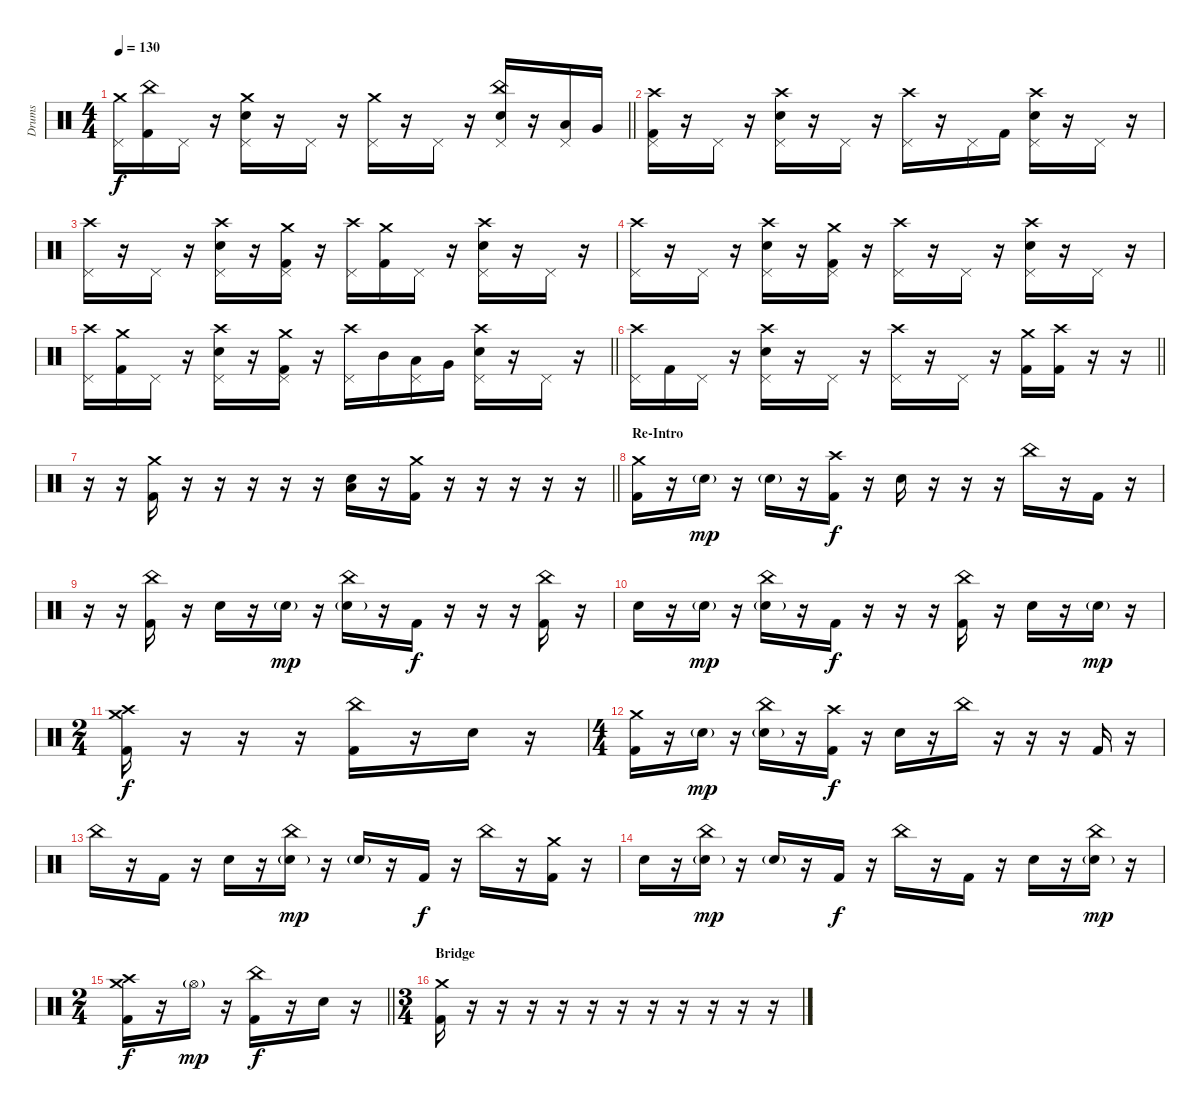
\track ("Drums" "Drums") {instrument percussion}
\staff {score}
\articulation defaults
\ts (4 4)
\tempo 130
\clef neutral
\barLineRight lightlight
\ks c
("Crash medium (hit)" "Pedal Hi-Hat (hit)").16{dy f} ("China (hit)" "Kick (hit) 2").16 "Pedal Hi-Hat (hit)".16 r.16 ("Crash medium (hit)" "Pedal Hi-Hat (hit)" "Electric Snare (hit)").16 r.16 "Pedal Hi-Hat (hit)".16 r.16 ("Crash medium (hit)" "Pedal Hi-Hat (hit)").16 r.16 "Pedal Hi-Hat (hit)".16 r.16 ("China (hit)" "Pedal Hi-Hat (hit)" "Electric Snare (hit)").16 r.16 ("Pedal Hi-Hat (hit)" "Low Tom (hit)").16 "Very Low Tom (hit)".16 |
("Crash high (hit)" "Pedal Hi-Hat (hit)" "Kick (hit) 2").16 r.16 "Pedal Hi-Hat (hit)".16 r.16 ("Crash high (hit)" "Pedal Hi-Hat (hit)" "Electric Snare (hit)").16 r.16 "Pedal Hi-Hat (hit)".16 r.16 ("Crash high (hit)" "Pedal Hi-Hat (hit)").16 r.16 "Pedal Hi-Hat (hit)".16 "Kick (hit) 2".16 ("Crash high (hit)" "Pedal Hi-Hat (hit)" "Electric Snare (hit)").16 r.16 "Pedal Hi-Hat (hit)".16 r.16 |
("Crash high (hit)" "Pedal Hi-Hat (hit)").16 r.16 "Pedal Hi-Hat (hit)".16 r.16 ("Crash high (hit)" "Pedal Hi-Hat (hit)" "Electric Snare (hit)").16 r.16 ("Crash medium (hit)" "Pedal Hi-Hat (hit)" "Kick (hit) 2").16 r.16 ("Crash high (hit)" "Pedal Hi-Hat (hit)").16 ("Crash medium (hit)" "Kick (hit) 2").16 "Pedal Hi-Hat (hit)".16 r.16 ("Crash high (hit)" "Pedal Hi-Hat (hit)" "Electric Snare (hit)").16 r.16 "Pedal Hi-Hat (hit)".16 r.16 |
("Crash high (hit)" "Pedal Hi-Hat (hit)").16 r.16 "Pedal Hi-Hat (hit)".16 r.16 ("Crash high (hit)" "Pedal Hi-Hat (hit)" "Electric Snare (hit)").16 r.16 ("Crash medium (hit)" "Pedal Hi-Hat (hit)" "Kick (hit) 2").16 r.16 ("Crash high (hit)" "Pedal Hi-Hat (hit)").16 r.16 "Pedal Hi-Hat (hit)".16 r.16 ("Crash high (hit)" "Pedal Hi-Hat (hit)" "Electric Snare (hit)").16 r.16 "Pedal Hi-Hat (hit)".16 r.16 |
\barLineRight lightlight
("Crash high (hit)" "Pedal Hi-Hat (hit)").16 ("Crash medium (hit)" "Kick (hit) 2").16 "Pedal Hi-Hat (hit)".16 r.16 ("Crash high (hit)" "Pedal Hi-Hat (hit)" "Electric Snare (hit)").16 r.16 ("Crash medium (hit)" "Pedal Hi-Hat (hit)" "Kick (hit) 2").16 r.16 ("Crash high (hit)" "Pedal Hi-Hat (hit)").16 "Mid Tom (hit)".16 ("Pedal Hi-Hat (hit)" "Low Tom (hit)").16 "Very Low Tom (hit)".16 ("Crash high (hit)" "Pedal Hi-Hat (hit)" "Electric Snare (hit)").16 r.16 "Pedal Hi-Hat (hit)".16 r.16 |
\barLineRight lightlight
("Crash high (hit)" "Pedal Hi-Hat (hit)").16 "Kick (hit) 2".16 "Pedal Hi-Hat (hit)".16 r.16 ("Crash high (hit)" "Pedal Hi-Hat (hit)" "Electric Snare (hit)").16 r.16 "Pedal Hi-Hat (hit)".16 r.16 ("Crash high (hit)" "Pedal Hi-Hat (hit)").16 r.16 "Pedal Hi-Hat (hit)".16 r.16 ("Crash medium (hit)" "Kick (hit) 2").16 ("Crash high (hit)" "Kick (hit) 2").16 r.16 r.16 |
\barLineRight lightlight
r.16 r.16 ("Crash medium (hit)" "Kick (hit) 2").16 r.16 r.16 r.16 r.16 r.16 ("Electric Snare (hit)" "Low Tom (hit)").16{bu 120} r.16 ("Crash medium (hit)" "Kick (hit) 2").16 r.16 r.16 r.16 r.16 r.16 |
\section ("" "Re-Intro")
("Crash medium (hit)" "Kick (hit) 2").16 r.16 "Electric Snare (hit)"{g}.16{dy mp} r.16 "Electric Snare (hit)"{g}.16 r.16 ("Crash high (hit)" "Kick (hit) 2").16{dy f} r.16 "Electric Snare (hit)".16 r.16 r.16 r.16 "China (hit)".16 r.16 "Kick (hit) 2".16 r.16 |
r.16 r.16 ("China (hit)" "Kick (hit) 2").16 r.16 "Electric Snare (hit)".16 r.16 "Electric Snare (hit)"{g}.16{dy mp} r.16 ("China (hit)" "Electric Snare (hit)"{g}).16 r.16 "Kick (hit) 2".16{dy f} r.16 r.16 r.16 ("China (hit)" "Kick (hit) 2").16 r.16 |
"Electric Snare (hit)".16 r.16 "Electric Snare (hit)"{g}.16{dy mp} r.16 ("China (hit)" "Electric Snare (hit)"{g}).16 r.16 "Kick (hit) 2".16{dy f} r.16 r.16 r.16 ("China (hit)" "Kick (hit) 2").16 r.16 "Electric Snare (hit)".16 r.16 "Electric Snare (hit)"{g}.16{dy mp} r.16 |
\ts (2 4)
("Crash high (hit)" "Crash medium (hit)" "Kick (hit) 2").16{dy f} r.16 r.16 r.16 ("China (hit)" "Kick (hit) 2").16 r.16 "Electric Snare (hit)".16 r.16 |
\ts (4 4)
("Crash medium (hit)" "Kick (hit) 2").16 r.16 "Electric Snare (hit)"{g}.16{dy mp} r.16 ("China (hit)" "Electric Snare (hit)"{g}).16 r.16 ("Crash high (hit)" "Kick (hit) 2").16{dy f} r.16 "Electric Snare (hit)".16 r.16 "China (hit)".16 r.16 r.16 r.16 "Kick (hit) 2".16 r.16 |
"China (hit)".16 r.16 "Kick (hit) 2".16 r.16 "Electric Snare (hit)".16 r.16 ("China (hit)" "Electric Snare (hit)"{g}).16{dy mp} r.16 "Electric Snare (hit)"{g}.16 r.16 "Kick (hit) 2".16{dy f} r.16 "China (hit)".16 r.16 ("Crash medium (hit)" "Kick (hit) 2").16 r.16 |
"Electric Snare (hit)".16 r.16 ("China (hit)" "Electric Snare (hit)"{g}).16{dy mp} r.16 "Electric Snare (hit)"{g}.16 r.16 "Kick (hit) 2".16{dy f} r.16 "China (hit)".16 r.16 "Kick (hit) 2".16 r.16 "Electric Snare (hit)".16 r.16 ("China (hit)" "Electric Snare (hit)"{g}).16{dy mp} r.16 |
\ts (2 4)
\barLineRight lightlight
("Crash high (hit)" "Crash medium (hit)" "Kick (hit) 2").16{dy f} r.16 "Hi-Hat (open)"{g}.16{dy mp} r.16 ("China (hit)" "Kick (hit) 2").16{dy f} r.16 "Electric Snare (hit)".16 r.16 |
\ts (3 4)
\section ("" "Bridge")
("Crash medium (hit)" "Kick (hit) 2").16 r.16 r.16 r.16 r.16 r.16 r.16 r.16 r.16 r.16 r.16 r.16
